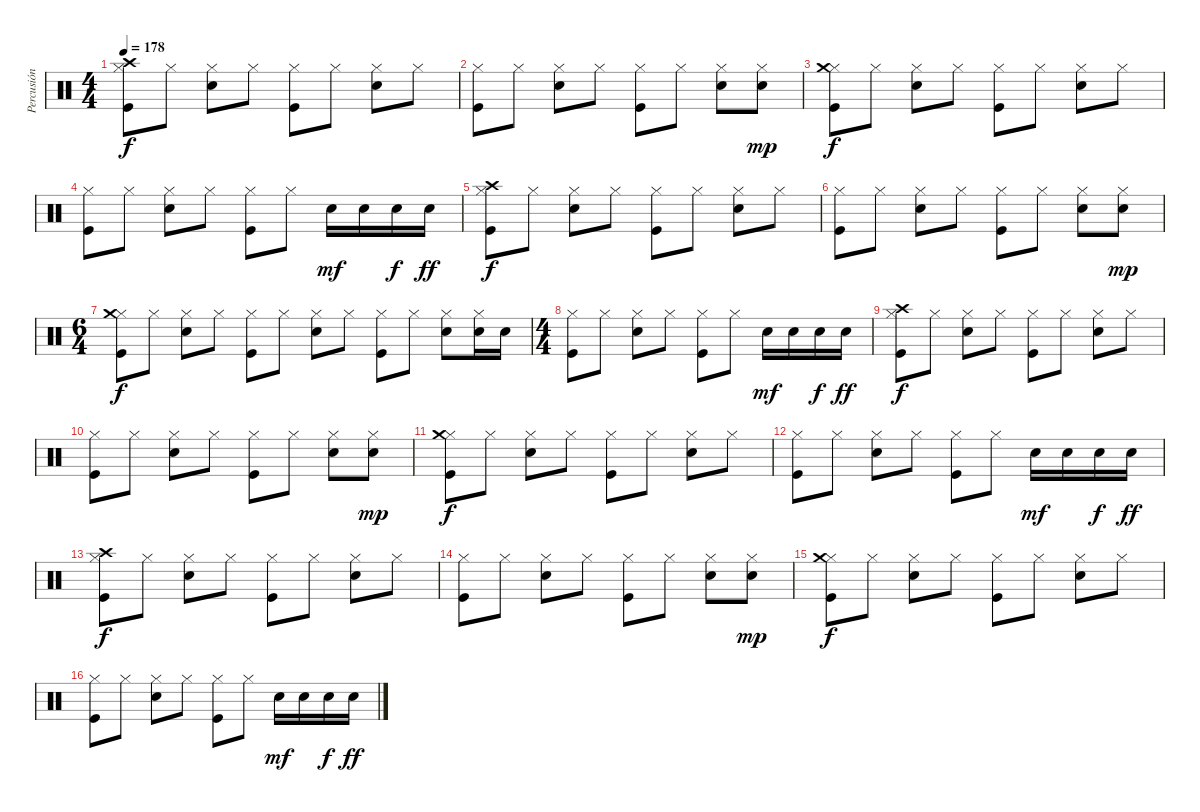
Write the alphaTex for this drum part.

\track ("Percusión" "Percusión") {instrument percussion}
\staff {score}
\articulation defaults
\ts (4 4)
\tempo 178
\clef neutral
\ks c
("Hi-Hat (closed)" "Crash high (hit)" "Kick (hit)").8{dy f volume 13} "Hi-Hat (closed)".8 ("Hi-Hat (closed)" "Electric Snare (hit)").8 "Hi-Hat (closed)".8 ("Hi-Hat (closed)" "Kick (hit)").8 "Hi-Hat (closed)".8 ("Hi-Hat (closed)" "Electric Snare (hit)").8 "Hi-Hat (closed)".8 |
("Hi-Hat (closed)" "Kick (hit)").8 "Hi-Hat (closed)".8 ("Hi-Hat (closed)" "Electric Snare (hit)").8 "Hi-Hat (closed)".8 ("Hi-Hat (closed)" "Kick (hit)").8 "Hi-Hat (closed)".8 ("Hi-Hat (closed)" "Electric Snare (hit)").8 ("Hi-Hat (closed)" "Electric Snare (hit)").8{dy mp} |
("Hi-Hat (closed)" "Crash medium (hit)" "Kick (hit)").8{dy f} "Hi-Hat (closed)".8 ("Hi-Hat (closed)" "Electric Snare (hit)").8 "Hi-Hat (closed)".8 ("Hi-Hat (closed)" "Kick (hit)").8 "Hi-Hat (closed)".8 ("Hi-Hat (closed)" "Electric Snare (hit)").8 "Hi-Hat (closed)".8 |
("Hi-Hat (closed)" "Kick (hit)").8 "Hi-Hat (closed)".8 ("Hi-Hat (closed)" "Electric Snare (hit)").8 "Hi-Hat (closed)".8 ("Hi-Hat (closed)" "Kick (hit)").8 "Hi-Hat (closed)".8 "Electric Snare (hit)".16{dy mf} "Electric Snare (hit)".16 "Electric Snare (hit)".16{dy f} "Electric Snare (hit)".16{dy ff} |
("Hi-Hat (closed)" "Crash high (hit)" "Kick (hit)").8{dy f} "Hi-Hat (closed)".8 ("Hi-Hat (closed)" "Electric Snare (hit)").8 "Hi-Hat (closed)".8 ("Hi-Hat (closed)" "Kick (hit)").8 "Hi-Hat (closed)".8 ("Hi-Hat (closed)" "Electric Snare (hit)").8 "Hi-Hat (closed)".8 |
("Hi-Hat (closed)" "Kick (hit)").8 "Hi-Hat (closed)".8 ("Hi-Hat (closed)" "Electric Snare (hit)").8 "Hi-Hat (closed)".8 ("Hi-Hat (closed)" "Kick (hit)").8 "Hi-Hat (closed)".8 ("Hi-Hat (closed)" "Electric Snare (hit)").8 ("Hi-Hat (closed)" "Electric Snare (hit)").8{dy mp} |
\ts (6 4)
("Hi-Hat (closed)" "Crash medium (hit)" "Kick (hit)").8{dy f} "Hi-Hat (closed)".8 ("Hi-Hat (closed)" "Electric Snare (hit)").8 "Hi-Hat (closed)".8 ("Hi-Hat (closed)" "Kick (hit)").8 "Hi-Hat (closed)".8 ("Hi-Hat (closed)" "Electric Snare (hit)").8 "Hi-Hat (closed)".8 ("Hi-Hat (closed)" "Kick (hit)").8 "Hi-Hat (closed)".8 ("Hi-Hat (closed)" "Electric Snare (hit)").8{volume 16} ("Hi-Hat (closed)" "Electric Snare (hit)").16 "Electric Snare (hit)".16 |
\ts (4 4)
("Hi-Hat (closed)" "Kick (hit)").8 "Hi-Hat (closed)".8 ("Hi-Hat (closed)" "Electric Snare (hit)").8 "Hi-Hat (closed)".8 ("Hi-Hat (closed)" "Kick (hit)").8 "Hi-Hat (closed)".8 "Electric Snare (hit)".16{dy mf} "Electric Snare (hit)".16 "Electric Snare (hit)".16{dy f} "Electric Snare (hit)".16{dy ff} |
("Hi-Hat (closed)" "Crash high (hit)" "Kick (hit)").8{dy f} "Hi-Hat (closed)".8 ("Hi-Hat (closed)" "Electric Snare (hit)").8 "Hi-Hat (closed)".8 ("Hi-Hat (closed)" "Kick (hit)").8 "Hi-Hat (closed)".8 ("Hi-Hat (closed)" "Electric Snare (hit)").8 "Hi-Hat (closed)".8 |
("Hi-Hat (closed)" "Kick (hit)").8 "Hi-Hat (closed)".8 ("Hi-Hat (closed)" "Electric Snare (hit)").8 "Hi-Hat (closed)".8 ("Hi-Hat (closed)" "Kick (hit)").8 "Hi-Hat (closed)".8 ("Hi-Hat (closed)" "Electric Snare (hit)").8 ("Hi-Hat (closed)" "Electric Snare (hit)").8{dy mp} |
("Hi-Hat (closed)" "Crash medium (hit)" "Kick (hit)").8{dy f} "Hi-Hat (closed)".8 ("Hi-Hat (closed)" "Electric Snare (hit)").8 "Hi-Hat (closed)".8 ("Hi-Hat (closed)" "Kick (hit)").8 "Hi-Hat (closed)".8 ("Hi-Hat (closed)" "Electric Snare (hit)").8 "Hi-Hat (closed)".8 |
("Hi-Hat (closed)" "Kick (hit)").8 "Hi-Hat (closed)".8 ("Hi-Hat (closed)" "Electric Snare (hit)").8 "Hi-Hat (closed)".8 ("Hi-Hat (closed)" "Kick (hit)").8 "Hi-Hat (closed)".8 "Electric Snare (hit)".16{dy mf} "Electric Snare (hit)".16 "Electric Snare (hit)".16{dy f} "Electric Snare (hit)".16{dy ff} |
("Hi-Hat (closed)" "Crash high (hit)" "Kick (hit)").8{dy f} "Hi-Hat (closed)".8 ("Hi-Hat (closed)" "Electric Snare (hit)").8 "Hi-Hat (closed)".8 ("Hi-Hat (closed)" "Kick (hit)").8 "Hi-Hat (closed)".8 ("Hi-Hat (closed)" "Electric Snare (hit)").8 "Hi-Hat (closed)".8 |
("Hi-Hat (closed)" "Kick (hit)").8 "Hi-Hat (closed)".8 ("Hi-Hat (closed)" "Electric Snare (hit)").8 "Hi-Hat (closed)".8 ("Hi-Hat (closed)" "Kick (hit)").8 "Hi-Hat (closed)".8 ("Hi-Hat (closed)" "Electric Snare (hit)").8 ("Hi-Hat (closed)" "Electric Snare (hit)").8{dy mp} |
("Hi-Hat (closed)" "Crash medium (hit)" "Kick (hit)").8{dy f} "Hi-Hat (closed)".8 ("Hi-Hat (closed)" "Electric Snare (hit)").8 "Hi-Hat (closed)".8 ("Hi-Hat (closed)" "Kick (hit)").8 "Hi-Hat (closed)".8 ("Hi-Hat (closed)" "Electric Snare (hit)").8 "Hi-Hat (closed)".8 |
("Hi-Hat (closed)" "Kick (hit)").8 "Hi-Hat (closed)".8 ("Hi-Hat (closed)" "Electric Snare (hit)").8 "Hi-Hat (closed)".8 ("Hi-Hat (closed)" "Kick (hit)").8 "Hi-Hat (closed)".8 "Electric Snare (hit)".16{dy mf} "Electric Snare (hit)".16 "Electric Snare (hit)".16{dy f} "Electric Snare (hit)".16{dy ff}
